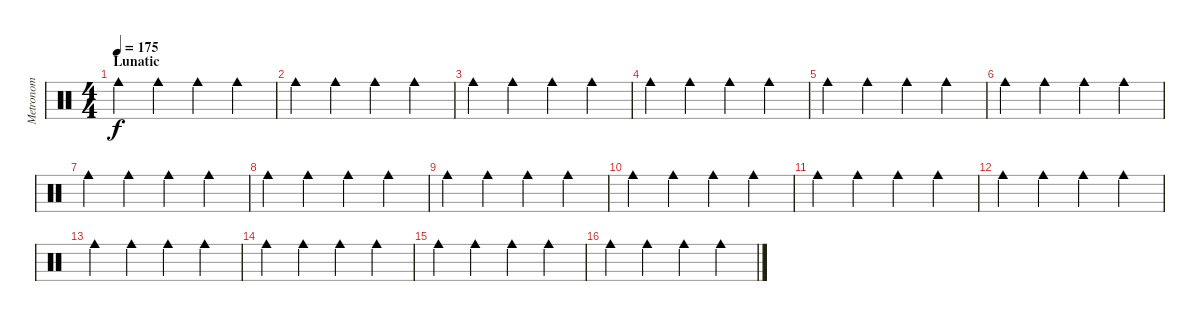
\track ("Metronom" "Metronom") {instrument percussion}
\staff {score}
\articulation defaults
\ts (4 4)
\section ("" "Lunatic")
\tempo 175
\clef neutral
\ks c "Cowbell medium (hit)".4{dy f} "Cowbell medium (hit)".4 "Cowbell medium (hit)".4 "Cowbell medium (hit)".4
|
"Cowbell medium (hit)".4 "Cowbell medium (hit)".4 "Cowbell medium (hit)".4 "Cowbell medium (hit)".4 |
"Cowbell medium (hit)".4 "Cowbell medium (hit)".4 "Cowbell medium (hit)".4 "Cowbell medium (hit)".4 |
"Cowbell medium (hit)".4 "Cowbell medium (hit)".4 "Cowbell medium (hit)".4 "Cowbell medium (hit)".4 |
"Cowbell medium (hit)".4 "Cowbell medium (hit)".4 "Cowbell medium (hit)".4 "Cowbell medium (hit)".4 |
"Cowbell medium (hit)".4 "Cowbell medium (hit)".4 "Cowbell medium (hit)".4 "Cowbell medium (hit)".4 |
"Cowbell medium (hit)".4 "Cowbell medium (hit)".4 "Cowbell medium (hit)".4 "Cowbell medium (hit)".4 |
"Cowbell medium (hit)".4 "Cowbell medium (hit)".4 "Cowbell medium (hit)".4 "Cowbell medium (hit)".4 |
"Cowbell medium (hit)".4 "Cowbell medium (hit)".4 "Cowbell medium (hit)".4 "Cowbell medium (hit)".4 |
"Cowbell medium (hit)".4 "Cowbell medium (hit)".4 "Cowbell medium (hit)".4 "Cowbell medium (hit)".4 |
"Cowbell medium (hit)".4 "Cowbell medium (hit)".4 "Cowbell medium (hit)".4 "Cowbell medium (hit)".4 |
"Cowbell medium (hit)".4 "Cowbell medium (hit)".4 "Cowbell medium (hit)".4 "Cowbell medium (hit)".4 |
"Cowbell medium (hit)".4 "Cowbell medium (hit)".4 "Cowbell medium (hit)".4 "Cowbell medium (hit)".4 |
"Cowbell medium (hit)".4 "Cowbell medium (hit)".4 "Cowbell medium (hit)".4 "Cowbell medium (hit)".4 |
"Cowbell medium (hit)".4 "Cowbell medium (hit)".4 "Cowbell medium (hit)".4 "Cowbell medium (hit)".4 |
"Cowbell medium (hit)".4 "Cowbell medium (hit)".4 "Cowbell medium (hit)".4 "Cowbell medium (hit)".4
